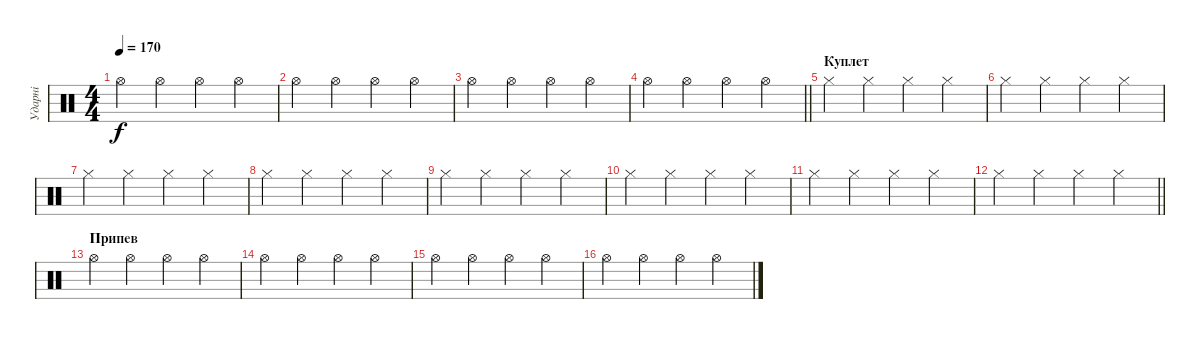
\track ("Ударні" "Ударні") {instrument percussion}
\staff {score}
\articulation defaults
\ts (4 4)
\tempo 170
\clef neutral
\ks c "Hi-Hat (open)".4{dy f} "Hi-Hat (open)".4 "Hi-Hat (open)".4 "Hi-Hat (open)".4
|
"Hi-Hat (open)".4 "Hi-Hat (open)".4 "Hi-Hat (open)".4 "Hi-Hat (open)".4 |
"Hi-Hat (open)".4 "Hi-Hat (open)".4 "Hi-Hat (open)".4 "Hi-Hat (open)".4 |
\barLineRight lightlight "Hi-Hat (open)".4 "Hi-Hat (open)".4 "Hi-Hat (open)".4 "Hi-Hat (open)".4
|
\section ("" "Куплет")
"Hi-Hat (closed)".4 "Hi-Hat (closed)".4 "Hi-Hat (closed)".4 "Hi-Hat (closed)".4 |
"Hi-Hat (closed)".4 "Hi-Hat (closed)".4 "Hi-Hat (closed)".4 "Hi-Hat (closed)".4 |
"Hi-Hat (closed)".4 "Hi-Hat (closed)".4 "Hi-Hat (closed)".4 "Hi-Hat (closed)".4 |
"Hi-Hat (closed)".4 "Hi-Hat (closed)".4 "Hi-Hat (closed)".4 "Hi-Hat (closed)".4 |
"Hi-Hat (closed)".4 "Hi-Hat (closed)".4 "Hi-Hat (closed)".4 "Hi-Hat (closed)".4 |
"Hi-Hat (closed)".4 "Hi-Hat (closed)".4 "Hi-Hat (closed)".4 "Hi-Hat (closed)".4 |
"Hi-Hat (closed)".4 "Hi-Hat (closed)".4 "Hi-Hat (closed)".4 "Hi-Hat (closed)".4 |
\barLineRight lightlight "Hi-Hat (closed)".4 "Hi-Hat (closed)".4 "Hi-Hat (closed)".4 "Hi-Hat (closed)".4
|
\section ("" "Припев")
"Hi-Hat (open)".4 "Hi-Hat (open)".4 "Hi-Hat (open)".4 "Hi-Hat (open)".4 |
"Hi-Hat (open)".4 "Hi-Hat (open)".4 "Hi-Hat (open)".4 "Hi-Hat (open)".4 |
"Hi-Hat (open)".4 "Hi-Hat (open)".4 "Hi-Hat (open)".4 "Hi-Hat (open)".4 |
"Hi-Hat (open)".4 "Hi-Hat (open)".4 "Hi-Hat (open)".4 "Hi-Hat (open)".4
